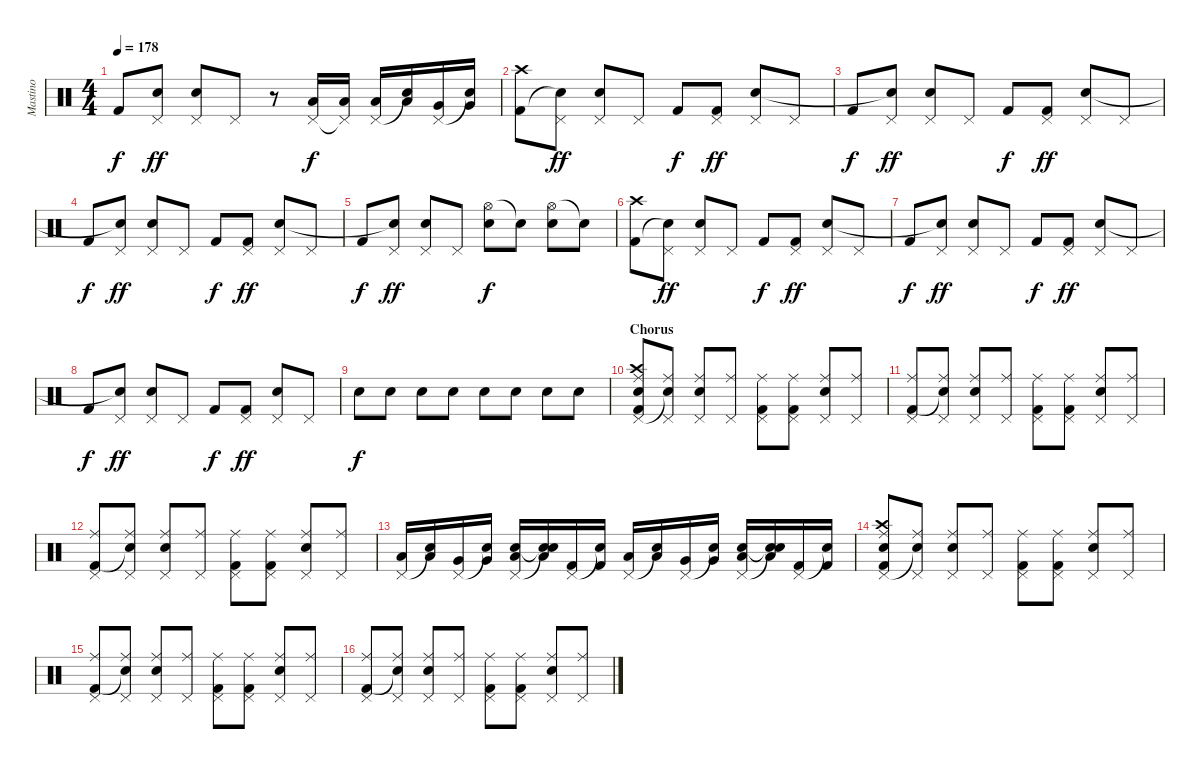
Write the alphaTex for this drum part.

\track ("Mastino" "Mastino") {instrument percussion}
\staff {score}
\articulation defaults
\ts (4 4)
\tempo 178
\clef neutral
\ks c "Kick (hit) 2".8{dy f}
("Pedal Hi-Hat (hit)" "Snare (hit)"{t}).8{dy ff} ("Pedal Hi-Hat (hit)" "Electric Snare (hit)").8 "Pedal Hi-Hat (hit)".8 r.8 ("Pedal Hi-Hat (hit)" "Low Tom (hit)").16{dy f} ("Pedal Hi-Hat (hit)"{t} "Low Tom (hit)").16 ("Pedal Hi-Hat (hit)" "Low Floor Tom (hit)").16 ("Snare (hit)"{t} "Low Floor Tom (hit)").16 ("Pedal Hi-Hat (hit)" "Very Low Tom (hit)").16 ("Snare (hit)"{t} "Very Low Tom (hit)").16 |
("Crash high (hit)" "Kick (hit) 2").8 ("Pedal Hi-Hat (hit)" "Snare (hit)"{t}).8{dy ff} ("Pedal Hi-Hat (hit)" "Electric Snare (hit)").8 "Pedal Hi-Hat (hit)".8 "Kick (hit) 2".8{dy f} ("Pedal Hi-Hat (hit)" "Kick (hit) 2").8{dy ff} ("Pedal Hi-Hat (hit)" "Electric Snare (hit)").8 "Pedal Hi-Hat (hit)".8 |
"Kick (hit) 2".8{dy f} ("Pedal Hi-Hat (hit)" "Snare (hit)"{t}).8{dy ff} ("Pedal Hi-Hat (hit)" "Electric Snare (hit)").8 "Pedal Hi-Hat (hit)".8 "Kick (hit) 2".8{dy f} ("Pedal Hi-Hat (hit)" "Kick (hit) 2").8{dy ff} ("Pedal Hi-Hat (hit)" "Electric Snare (hit)").8 "Pedal Hi-Hat (hit)".8 |
"Kick (hit) 2".8{dy f} ("Pedal Hi-Hat (hit)" "Snare (hit)"{t}).8{dy ff} ("Pedal Hi-Hat (hit)" "Electric Snare (hit)").8 "Pedal Hi-Hat (hit)".8 "Kick (hit) 2".8{dy f} ("Pedal Hi-Hat (hit)" "Kick (hit) 2").8{dy ff} ("Pedal Hi-Hat (hit)" "Electric Snare (hit)").8 "Pedal Hi-Hat (hit)".8 |
"Kick (hit) 2".8{dy f} ("Pedal Hi-Hat (hit)" "Snare (hit)"{t}).8{dy ff} ("Pedal Hi-Hat (hit)" "Electric Snare (hit)").8 "Pedal Hi-Hat (hit)".8 ("Hi-Hat (open)" "Electric Snare (hit)").8{dy f} "Snare (hit)"{t}.8 ("Hi-Hat (open)" "Electric Snare (hit)").8 "Snare (hit)"{t}.8 |
("Crash high (hit)" "Kick (hit) 2").8 ("Pedal Hi-Hat (hit)" "Snare (hit)"{t}).8{dy ff} ("Pedal Hi-Hat (hit)" "Electric Snare (hit)").8 "Pedal Hi-Hat (hit)".8 "Kick (hit) 2".8{dy f} ("Pedal Hi-Hat (hit)" "Kick (hit) 2").8{dy ff} ("Pedal Hi-Hat (hit)" "Electric Snare (hit)").8 "Pedal Hi-Hat (hit)".8 |
"Kick (hit) 2".8{dy f} ("Pedal Hi-Hat (hit)" "Snare (hit)"{t}).8{dy ff} ("Pedal Hi-Hat (hit)" "Electric Snare (hit)").8 "Pedal Hi-Hat (hit)".8 "Kick (hit) 2".8{dy f} ("Pedal Hi-Hat (hit)" "Kick (hit) 2").8{dy ff} ("Pedal Hi-Hat (hit)" "Electric Snare (hit)").8 "Pedal Hi-Hat (hit)".8 |
"Kick (hit) 2".8{dy f} ("Pedal Hi-Hat (hit)" "Snare (hit)"{t}).8{dy ff} ("Pedal Hi-Hat (hit)" "Electric Snare (hit)").8 "Pedal Hi-Hat (hit)".8 "Kick (hit) 2".8{dy f} ("Pedal Hi-Hat (hit)" "Kick (hit) 2").8{dy ff} ("Pedal Hi-Hat (hit)" "Electric Snare (hit)").8 "Pedal Hi-Hat (hit)".8 |
"Electric Snare (hit)".8{dy f} "Electric Snare (hit)".8 "Electric Snare (hit)".8 "Electric Snare (hit)".8 "Electric Snare (hit)".8 "Electric Snare (hit)".8 "Electric Snare (hit)".8 "Electric Snare (hit)".8 |
\section ("" "Chorus")
("Crash high (hit)" "Ride (middle)" "Pedal Hi-Hat (hit)" "Snare (hit)" "Kick (hit) 2").8 ("Ride (middle)" "Pedal Hi-Hat (hit)" "Snare (hit)"{t}).8 ("Ride (middle)" "Pedal Hi-Hat (hit)" "Electric Snare (hit)").8 ("Ride (middle)" "Pedal Hi-Hat (hit)").8 ("Ride (middle)" "Pedal Hi-Hat (hit)" "Kick (hit) 2").8 ("Ride (middle)" "Pedal Hi-Hat (hit)" "Kick (hit) 2").8 ("Ride (middle)" "Pedal Hi-Hat (hit)" "Electric Snare (hit)").8 ("Ride (middle)" "Pedal Hi-Hat (hit)").8 |
("Ride (middle)" "Pedal Hi-Hat (hit)" "Kick (hit) 2").8 ("Ride (middle)" "Pedal Hi-Hat (hit)" "Snare (hit)"{t}).8 ("Ride (middle)" "Pedal Hi-Hat (hit)" "Electric Snare (hit)").8 ("Ride (middle)" "Pedal Hi-Hat (hit)").8 ("Ride (middle)" "Pedal Hi-Hat (hit)" "Kick (hit) 2").8 ("Ride (middle)" "Pedal Hi-Hat (hit)" "Kick (hit) 2").8 ("Ride (middle)" "Pedal Hi-Hat (hit)" "Electric Snare (hit)").8 ("Ride (middle)" "Pedal Hi-Hat (hit)").8 |
("Ride (middle)" "Pedal Hi-Hat (hit)" "Kick (hit) 2").8 ("Ride (middle)" "Pedal Hi-Hat (hit)" "Snare (hit)"{t}).8 ("Ride (middle)" "Pedal Hi-Hat (hit)" "Electric Snare (hit)").8 ("Ride (middle)" "Pedal Hi-Hat (hit)").8 ("Ride (middle)" "Pedal Hi-Hat (hit)" "Kick (hit) 2").8 ("Ride (middle)" "Pedal Hi-Hat (hit)" "Kick (hit) 2").8 ("Ride (middle)" "Pedal Hi-Hat (hit)" "Electric Snare (hit)").8 ("Ride (middle)" "Pedal Hi-Hat (hit)").8 |
("Pedal Hi-Hat (hit)" "Low Tom (hit)").16 ("Snare (hit)"{t} "Low Tom (hit)").16 ("Pedal Hi-Hat (hit)" "Very Low Tom (hit)").16 ("Snare (hit)"{t} "Very Low Tom (hit)").16 ("Pedal Hi-Hat (hit)" "Electric Snare (hit)" "Low Floor Tom (hit)").16 ("Snare (hit)"{t} "Electric Snare (hit)"{t} "Low Floor Tom (hit)").16 ("Pedal Hi-Hat (hit)" "Kick (hit) 2").16 ("Snare (hit)"{t} "Kick (hit) 2").16 ("Pedal Hi-Hat (hit)" "Low Tom (hit)").16 ("Snare (hit)"{t} "Low Tom (hit)").16 ("Pedal Hi-Hat (hit)" "Very Low Tom (hit)").16 ("Snare (hit)"{t} "Very Low Tom (hit)").16 ("Pedal Hi-Hat (hit)" "Electric Snare (hit)" "Low Floor Tom (hit)").16 ("Snare (hit)"{t} "Electric Snare (hit)"{t} "Low Floor Tom (hit)").16 ("Pedal Hi-Hat (hit)" "Kick (hit) 2").16 ("Snare (hit)"{t} "Kick (hit) 2").16 |
("Crash high (hit)" "Ride (middle)" "Pedal Hi-Hat (hit)" "Snare (hit)" "Kick (hit) 2").8 ("Ride (middle)" "Pedal Hi-Hat (hit)" "Snare (hit)"{t}).8 ("Ride (middle)" "Pedal Hi-Hat (hit)" "Electric Snare (hit)").8 ("Ride (middle)" "Pedal Hi-Hat (hit)").8 ("Ride (middle)" "Pedal Hi-Hat (hit)" "Kick (hit) 2").8 ("Ride (middle)" "Pedal Hi-Hat (hit)" "Kick (hit) 2").8 ("Ride (middle)" "Pedal Hi-Hat (hit)" "Electric Snare (hit)").8 ("Ride (middle)" "Pedal Hi-Hat (hit)").8 |
("Ride (middle)" "Pedal Hi-Hat (hit)" "Kick (hit) 2").8 ("Ride (middle)" "Pedal Hi-Hat (hit)" "Snare (hit)"{t}).8 ("Ride (middle)" "Pedal Hi-Hat (hit)" "Electric Snare (hit)").8 ("Ride (middle)" "Pedal Hi-Hat (hit)").8 ("Ride (middle)" "Pedal Hi-Hat (hit)" "Kick (hit) 2").8 ("Ride (middle)" "Pedal Hi-Hat (hit)" "Kick (hit) 2").8 ("Ride (middle)" "Pedal Hi-Hat (hit)" "Electric Snare (hit)").8 ("Ride (middle)" "Pedal Hi-Hat (hit)").8 |
("Ride (middle)" "Pedal Hi-Hat (hit)" "Kick (hit) 2").8 ("Ride (middle)" "Pedal Hi-Hat (hit)" "Snare (hit)"{t}).8 ("Ride (middle)" "Pedal Hi-Hat (hit)" "Electric Snare (hit)").8 ("Ride (middle)" "Pedal Hi-Hat (hit)").8 ("Ride (middle)" "Pedal Hi-Hat (hit)" "Kick (hit) 2").8 ("Ride (middle)" "Pedal Hi-Hat (hit)" "Kick (hit) 2").8 ("Ride (middle)" "Pedal Hi-Hat (hit)" "Electric Snare (hit)").8 ("Ride (middle)" "Pedal Hi-Hat (hit)").8
